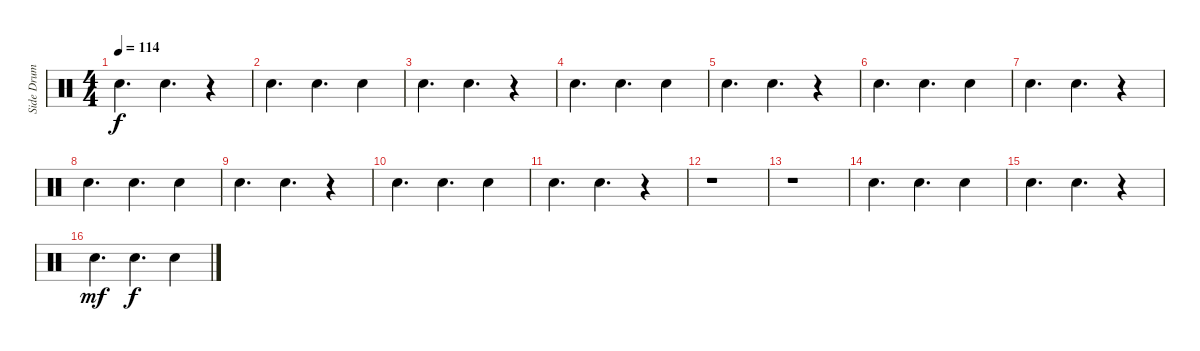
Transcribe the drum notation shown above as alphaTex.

\track ("Side Drum" "Side Drum") {instrument percussion}
\staff {score}
\articulation defaults
\ts (4 4)
\tempo 114
\clef neutral
\ks c "Snare (hit) 2".4{d dy f} "Snare (hit) 2".4{d}
r.4 |
"Snare (hit) 2".4{d} "Snare (hit) 2".4{d} "Snare (hit) 2".4 |
"Snare (hit) 2".4{d} "Snare (hit) 2".4{d} r.4 |
"Snare (hit) 2".4{d} "Snare (hit) 2".4{d} "Snare (hit) 2".4 |
"Snare (hit) 2".4{d} "Snare (hit) 2".4{d} r.4 |
"Snare (hit) 2".4{d} "Snare (hit) 2".4{d} "Snare (hit) 2".4 |
"Snare (hit) 2".4{d} "Snare (hit) 2".4{d} r.4 |
"Snare (hit) 2".4{d} "Snare (hit) 2".4{d} "Snare (hit) 2".4 |
"Snare (hit) 2".4{d} "Snare (hit) 2".4{d} r.4 |
"Snare (hit) 2".4{d} "Snare (hit) 2".4{d} "Snare (hit) 2".4 |
"Snare (hit) 2".4{d} "Snare (hit) 2".4{d} r.4 |
r.1 |
r.1 |
"Snare (hit) 2".4{d} "Snare (hit) 2".4{d} "Snare (hit) 2".4 |
"Snare (hit) 2".4{d} "Snare (hit) 2".4{d} r.4 |
"Snare (hit) 2".4{d dy mf} "Snare (hit) 2".4{d dy f} "Snare (hit) 2".4
